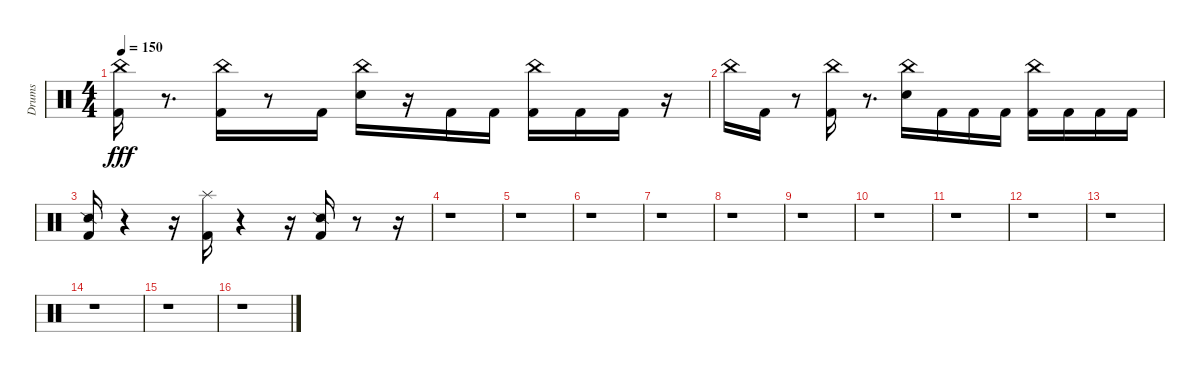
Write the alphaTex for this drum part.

\track ("Drums" "Drums") {instrument percussion}
\staff {score}
\articulation defaults
\ts (4 4)
\tempo 150
\clef neutral
\ks c
("Kick (hit) 2" "China (hit)").16{dy fff} r.8{d} ("Kick (hit) 2" "China (hit)").16 r.8 "Kick (hit) 2".16 ("Snare (hit) 2" "China (hit)").16 r.16 "Kick (hit) 2".16 "Kick (hit) 2".16 ("Kick (hit) 2" "China (hit)").16 "Kick (hit) 2".16 "Kick (hit) 2".16 r.16 |
"China (hit)".16 "Kick (hit) 2".16 r.8 ("Kick (hit) 2" "China (hit)").16 r.8{d} ("Snare (hit) 2" "China (hit)").16 "Kick (hit) 2".16 "Kick (hit) 2".16 "Kick (hit) 2".16 ("Kick (hit) 2" "China (hit)").16 "Kick (hit) 2".16 "Kick (hit) 2".16 "Kick (hit) 2".16 |
("Snare (side stick) 2" "Kick (hit) 2").16 r.4 r.16 ("Kick (hit) 2" "Splash (hit)").16 r.4 r.16 ("Snare (side stick) 2" "Kick (hit) 2").16 r.8 r.16 |
r.1 |
r.1 |
r.1 |
r.1 |
r.1 |
r.1 |
r.1 |
r.1 |
r.1 |
r.1 |
r.1 |
r.1 |
r.1
